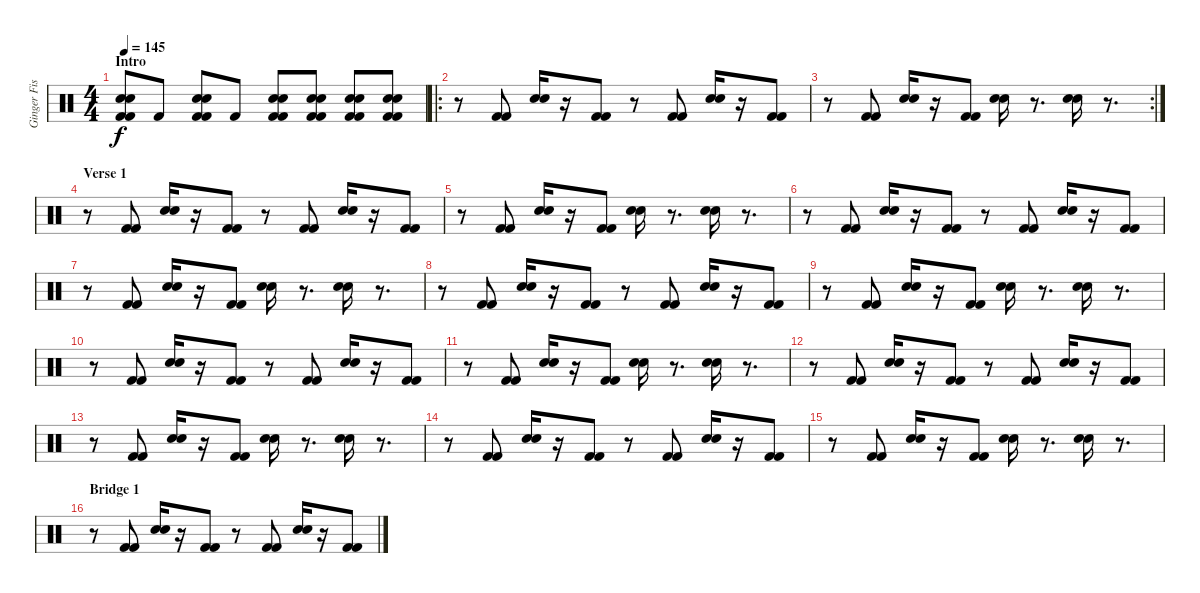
\track ("Ginger Fish [Drums]" "Ginger Fis") {instrument percussion}
\staff {score}
\articulation defaults
\ts (4 4)
\section ("" "Intro")
\tempo 145
\clef neutral
\ks c
("Snare (hit) 2" "Snare (hit) 2" "Kick (hit) 2" "Kick (hit) 2").8{dy f} "Kick (hit) 2".8 ("Snare (hit) 2" "Snare (hit) 2" "Kick (hit) 2" "Kick (hit) 2").8 "Kick (hit) 2".8 ("Snare (hit) 2" "Snare (hit) 2" "Kick (hit) 2" "Kick (hit) 2").8 ("Snare (hit) 2" "Snare (hit) 2" "Kick (hit) 2" "Kick (hit) 2").8 ("Snare (hit) 2" "Snare (hit) 2" "Kick (hit) 2" "Kick (hit) 2").8 ("Snare (hit) 2" "Snare (hit) 2" "Kick (hit) 2" "Kick (hit) 2").8 |
\ro
r.8 ("Kick (hit) 2" "Kick (hit) 2").8 ("Snare (hit) 2" "Snare (hit) 2").16 r.16 ("Kick (hit) 2" "Kick (hit) 2").8 r.8 ("Kick (hit) 2" "Kick (hit) 2").8 ("Snare (hit) 2" "Snare (hit) 2").16 r.16 ("Kick (hit) 2" "Kick (hit) 2").8 |
\rc 2
r.8 ("Kick (hit) 2" "Kick (hit) 2").8 ("Snare (hit) 2" "Snare (hit) 2").16 r.16 ("Kick (hit) 2" "Kick (hit) 2").8 ("Snare (hit) 2" "Snare (hit) 2").16 r.8{d} ("Snare (hit) 2" "Snare (hit) 2").16 r.8{d} |
\section ("" "Verse 1")
r.8 ("Kick (hit) 2" "Kick (hit) 2").8 ("Snare (hit) 2" "Snare (hit) 2").16 r.16 ("Kick (hit) 2" "Kick (hit) 2").8 r.8 ("Kick (hit) 2" "Kick (hit) 2").8 ("Snare (hit) 2" "Snare (hit) 2").16 r.16 ("Kick (hit) 2" "Kick (hit) 2").8 |
r.8 ("Kick (hit) 2" "Kick (hit) 2").8 ("Snare (hit) 2" "Snare (hit) 2").16 r.16 ("Kick (hit) 2" "Kick (hit) 2").8 ("Snare (hit) 2" "Snare (hit) 2").16 r.8{d} ("Snare (hit) 2" "Snare (hit) 2").16 r.8{d} |
r.8 ("Kick (hit) 2" "Kick (hit) 2").8 ("Snare (hit) 2" "Snare (hit) 2").16 r.16 ("Kick (hit) 2" "Kick (hit) 2").8 r.8 ("Kick (hit) 2" "Kick (hit) 2").8 ("Snare (hit) 2" "Snare (hit) 2").16 r.16 ("Kick (hit) 2" "Kick (hit) 2").8 |
r.8 ("Kick (hit) 2" "Kick (hit) 2").8 ("Snare (hit) 2" "Snare (hit) 2").16 r.16 ("Kick (hit) 2" "Kick (hit) 2").8 ("Snare (hit) 2" "Snare (hit) 2").16 r.8{d} ("Snare (hit) 2" "Snare (hit) 2").16 r.8{d} |
r.8 ("Kick (hit) 2" "Kick (hit) 2").8 ("Snare (hit) 2" "Snare (hit) 2").16 r.16 ("Kick (hit) 2" "Kick (hit) 2").8 r.8 ("Kick (hit) 2" "Kick (hit) 2").8 ("Snare (hit) 2" "Snare (hit) 2").16 r.16 ("Kick (hit) 2" "Kick (hit) 2").8 |
r.8 ("Kick (hit) 2" "Kick (hit) 2").8 ("Snare (hit) 2" "Snare (hit) 2").16 r.16 ("Kick (hit) 2" "Kick (hit) 2").8 ("Snare (hit) 2" "Snare (hit) 2").16 r.8{d} ("Snare (hit) 2" "Snare (hit) 2").16 r.8{d} |
r.8 ("Kick (hit) 2" "Kick (hit) 2").8 ("Snare (hit) 2" "Snare (hit) 2").16 r.16 ("Kick (hit) 2" "Kick (hit) 2").8 r.8 ("Kick (hit) 2" "Kick (hit) 2").8 ("Snare (hit) 2" "Snare (hit) 2").16 r.16 ("Kick (hit) 2" "Kick (hit) 2").8 |
r.8 ("Kick (hit) 2" "Kick (hit) 2").8 ("Snare (hit) 2" "Snare (hit) 2").16 r.16 ("Kick (hit) 2" "Kick (hit) 2").8 ("Snare (hit) 2" "Snare (hit) 2").16 r.8{d} ("Snare (hit) 2" "Snare (hit) 2").16 r.8{d} |
r.8 ("Kick (hit) 2" "Kick (hit) 2").8 ("Snare (hit) 2" "Snare (hit) 2").16 r.16 ("Kick (hit) 2" "Kick (hit) 2").8 r.8 ("Kick (hit) 2" "Kick (hit) 2").8 ("Snare (hit) 2" "Snare (hit) 2").16 r.16 ("Kick (hit) 2" "Kick (hit) 2").8 |
r.8 ("Kick (hit) 2" "Kick (hit) 2").8 ("Snare (hit) 2" "Snare (hit) 2").16 r.16 ("Kick (hit) 2" "Kick (hit) 2").8 ("Snare (hit) 2" "Snare (hit) 2").16 r.8{d} ("Snare (hit) 2" "Snare (hit) 2").16 r.8{d} |
r.8 ("Kick (hit) 2" "Kick (hit) 2").8 ("Snare (hit) 2" "Snare (hit) 2").16 r.16 ("Kick (hit) 2" "Kick (hit) 2").8 r.8 ("Kick (hit) 2" "Kick (hit) 2").8 ("Snare (hit) 2" "Snare (hit) 2").16 r.16 ("Kick (hit) 2" "Kick (hit) 2").8 |
r.8 ("Kick (hit) 2" "Kick (hit) 2").8 ("Snare (hit) 2" "Snare (hit) 2").16 r.16 ("Kick (hit) 2" "Kick (hit) 2").8 ("Snare (hit) 2" "Snare (hit) 2").16 r.8{d} ("Snare (hit) 2" "Snare (hit) 2").16 r.8{d} |
\section ("" "Bridge 1")
r.8 ("Kick (hit) 2" "Kick (hit) 2").8 ("Snare (hit) 2" "Snare (hit) 2").16 r.16 ("Kick (hit) 2" "Kick (hit) 2").8 r.8 ("Kick (hit) 2" "Kick (hit) 2").8 ("Snare (hit) 2" "Snare (hit) 2").16 r.16 ("Kick (hit) 2" "Kick (hit) 2").8
